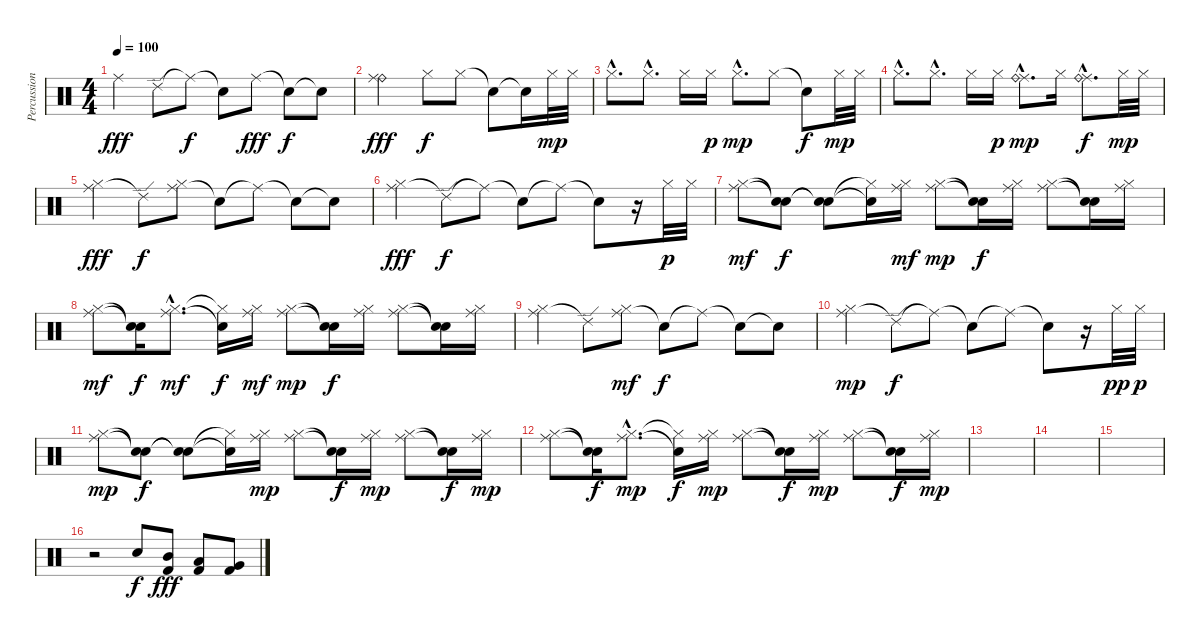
\track ("Percussion" "Percussion") {instrument percussion}
\staff {score}
\articulation defaults
\ts (4 4)
\tempo 100
\clef neutral
\ks c "Ride (middle)".4{dy fff} "Ride (edge) 2".8 "Ride (middle)"{t}.8{dy f} "Snare (hit)"{t}.8 "Ride (middle)".8{dy fff} "Snare (hit)"{t}.8{dy f} "Snare (hit)"{t}.8
|
("Ride (bell)" "Ride (middle)").2{dy fff} "Hi-Hat (closed)".8{dy f} "Hi-Hat (closed)".8 "Snare (hit)"{t}.8 "Snare (hit)"{t}.16 "Hi-Hat (closed)".32{dy mp} "Hi-Hat (closed)".32 |
"Hi-Hat (closed)"{hac}.8{d} "Hi-Hat (closed)"{hac}.8{d} "Hi-Hat (closed)".16 "Hi-Hat (closed)".16{dy p} "Hi-Hat (closed)"{hac}.8{d dy mp} "Hi-Hat (closed)".8 "Snare (hit)"{t}.8{dy f} "Hi-Hat (closed)".32{dy mp} "Hi-Hat (closed)".32 |
"Hi-Hat (closed)"{hac}.8{d} "Hi-Hat (closed)"{hac}.8{d} "Hi-Hat (closed)".16 "Hi-Hat (closed)".16{dy p} ("Ride (middle)"{hac} "Ride (bell)"{hac}).8{d dy mp} "Hi-Hat (closed)".16 ("Ride (middle)"{hac} "Ride (bell)"{hac}).8{d dy f} "Hi-Hat (closed)".32{dy mp} "Hi-Hat (closed)".32 |
("Ride (middle)" "Hi-Hat (closed)").4{dy fff} "Ride (edge) 2"{t}.8{dy f} ("Ride (middle)" "Hi-Hat (closed)").8 "Snare (hit)"{t}.8 "Ride (middle)"{t}.8 "Snare (hit)"{t}.8 "Snare (hit)"{t}.8 |
("Ride (middle)" "Hi-Hat (closed)").4{dy fff} "Ride (edge) 2"{t}.8{dy f} "Ride (middle)"{t}.8 "Snare (hit)"{t}.8 "Ride (middle)"{t}.8 "Snare (hit)"{t}.8 r.16 "Hi-Hat (closed)".32{dy p} "Hi-Hat (closed)".32 |
("Hi-Hat (closed)" "Ride (middle)").8{dy mf} ("Snare (hit)"{t} "Snare (hit)"{t}).8{dy f} ("Snare (hit)"{t} "Snare (hit)"{t}).8 ("Hi-Hat (closed)"{t} "Snare (hit)"{t}).16 ("Hi-Hat (closed)" "Ride (middle)").16{dy mf} ("Hi-Hat (closed)" "Ride (middle)").8{dy mp} ("Snare (hit)"{t} "Snare (hit)"{t}).16{dy f} ("Hi-Hat (closed)" "Ride (middle)").16 ("Hi-Hat (closed)" "Ride (middle)").8 ("Snare (hit)"{t} "Snare (hit)"{t}).16 ("Hi-Hat (closed)" "Ride (middle)").16 |
("Hi-Hat (closed)" "Ride (middle)").8{dy mf} ("Snare (hit)"{t} "Snare (hit)"{t}).16{dy f} ("Hi-Hat (closed)"{hac} "Ride (middle)"{hac}).8{d dy mf} ("Hi-Hat (closed)"{t} "Snare (hit)"{t}).16{dy f} ("Hi-Hat (closed)" "Ride (middle)").16{dy mf} ("Hi-Hat (closed)" "Ride (middle)").8{dy mp} ("Snare (hit)"{t} "Snare (hit)"{t}).16{dy f} ("Hi-Hat (closed)" "Ride (middle)").16 ("Hi-Hat (closed)" "Ride (middle)").8 ("Snare (hit)"{t} "Snare (hit)"{t}).16 ("Hi-Hat (closed)" "Ride (middle)").16 |
("Ride (middle)" "Hi-Hat (closed)").4 "Ride (edge) 2"{t}.8 ("Ride (middle)" "Hi-Hat (closed)").8{dy mf} "Snare (hit)"{t}.8{dy f} "Ride (middle)"{t}.8 "Snare (hit)"{t}.8 "Snare (hit)"{t}.8 |
("Ride (middle)" "Hi-Hat (closed)").4{dy mp} "Ride (edge) 2"{t}.8{dy f} "Ride (middle)"{t}.8 "Snare (hit)"{t}.8 "Ride (middle)"{t}.8 "Snare (hit)"{t}.8 r.16 "Hi-Hat (closed)".32{dy pp} "Hi-Hat (closed)".32{dy p} |
("Hi-Hat (closed)" "Ride (middle)").8{dy mp} ("Snare (hit)"{t} "Snare (hit)"{t}).8{dy f} ("Snare (hit)"{t} "Snare (hit)"{t}).8 ("Hi-Hat (closed)"{t} "Snare (hit)"{t}).16 ("Hi-Hat (closed)" "Ride (middle)").16{dy mp} ("Hi-Hat (closed)" "Ride (middle)").8 ("Snare (hit)"{t} "Snare (hit)"{t}).16{dy f} ("Hi-Hat (closed)" "Ride (middle)").16{dy mp} ("Hi-Hat (closed)" "Ride (middle)").8 ("Snare (hit)"{t} "Snare (hit)"{t}).16{dy f} ("Hi-Hat (closed)" "Ride (middle)").16{dy mp} |
("Hi-Hat (closed)" "Ride (middle)").8 ("Snare (hit)"{t} "Snare (hit)"{t}).16{dy f} ("Hi-Hat (closed)"{hac} "Ride (middle)"{hac}).8{d dy mp} ("Hi-Hat (closed)"{t} "Snare (hit)"{t}).16{dy f} ("Hi-Hat (closed)" "Ride (middle)").16{dy mp} ("Hi-Hat (closed)" "Ride (middle)").8 ("Snare (hit)"{t} "Snare (hit)"{t}).16{dy f} ("Hi-Hat (closed)" "Ride (middle)").16{dy mp} ("Hi-Hat (closed)" "Ride (middle)").8 ("Snare (hit)"{t} "Snare (hit)"{t}).16{dy f} ("Hi-Hat (closed)" "Ride (middle)").16{dy mp} |
|
|
|
r.2 "Electric Snare (hit)".8{dy f} ("Mid Tom (hit)" "Kick (hit) 2").8{dy fff} ("Low Tom (hit)" "Kick (hit) 2").8 ("Very Low Tom (hit)" "Kick (hit) 2").8
